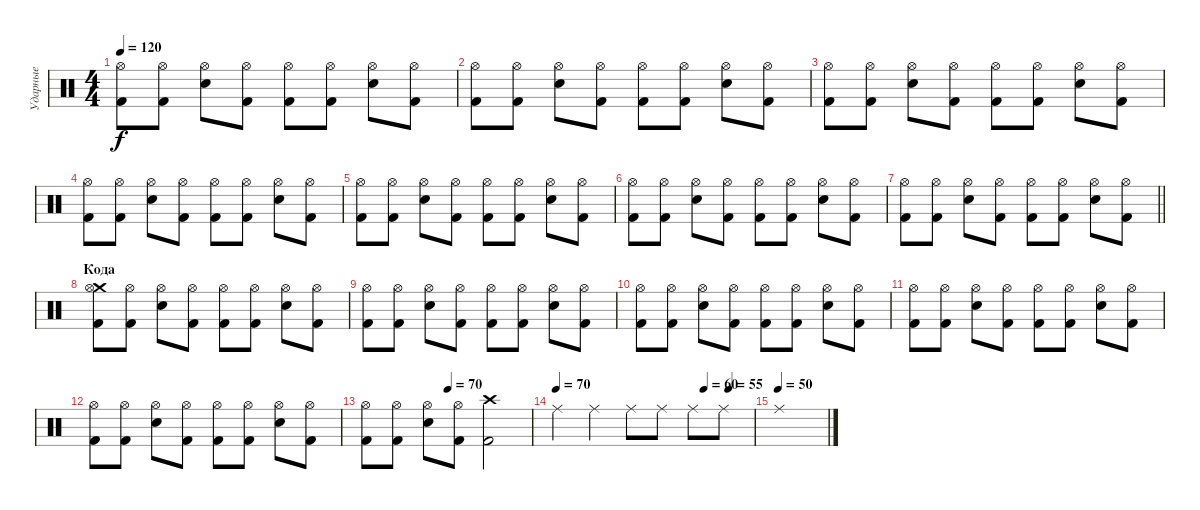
\track ("Ударные" "Ударные") {instrument percussion}
\staff {score}
\articulation defaults
\ts (4 4)
\tempo 120
\clef neutral
\ks c
("Kick (hit) 2" "Hi-Hat (open)").8{dy f} ("Kick (hit) 2" "Hi-Hat (open)").8 ("Snare (hit) 2" "Hi-Hat (open)").8 ("Kick (hit) 2" "Hi-Hat (open)").8 ("Kick (hit) 2" "Hi-Hat (open)").8 ("Kick (hit) 2" "Hi-Hat (open)").8 ("Snare (hit) 2" "Hi-Hat (open)").8 ("Kick (hit) 2" "Hi-Hat (open)").8 |
("Kick (hit) 2" "Hi-Hat (open)").8 ("Kick (hit) 2" "Hi-Hat (open)").8 ("Snare (hit) 2" "Hi-Hat (open)").8 ("Kick (hit) 2" "Hi-Hat (open)").8 ("Kick (hit) 2" "Hi-Hat (open)").8 ("Kick (hit) 2" "Hi-Hat (open)").8 ("Snare (hit) 2" "Hi-Hat (open)").8 ("Kick (hit) 2" "Hi-Hat (open)").8 |
("Kick (hit) 2" "Hi-Hat (open)").8 ("Kick (hit) 2" "Hi-Hat (open)").8 ("Snare (hit) 2" "Hi-Hat (open)").8 ("Kick (hit) 2" "Hi-Hat (open)").8 ("Kick (hit) 2" "Hi-Hat (open)").8 ("Kick (hit) 2" "Hi-Hat (open)").8 ("Snare (hit) 2" "Hi-Hat (open)").8 ("Kick (hit) 2" "Hi-Hat (open)").8 |
("Kick (hit) 2" "Hi-Hat (open)").8 ("Kick (hit) 2" "Hi-Hat (open)").8 ("Snare (hit) 2" "Hi-Hat (open)").8 ("Kick (hit) 2" "Hi-Hat (open)").8 ("Kick (hit) 2" "Hi-Hat (open)").8 ("Kick (hit) 2" "Hi-Hat (open)").8 ("Snare (hit) 2" "Hi-Hat (open)").8 ("Kick (hit) 2" "Hi-Hat (open)").8 |
("Kick (hit) 2" "Hi-Hat (open)").8 ("Kick (hit) 2" "Hi-Hat (open)").8 ("Snare (hit) 2" "Hi-Hat (open)").8 ("Kick (hit) 2" "Hi-Hat (open)").8 ("Kick (hit) 2" "Hi-Hat (open)").8 ("Kick (hit) 2" "Hi-Hat (open)").8 ("Snare (hit) 2" "Hi-Hat (open)").8 ("Kick (hit) 2" "Hi-Hat (open)").8 |
("Kick (hit) 2" "Hi-Hat (open)").8 ("Kick (hit) 2" "Hi-Hat (open)").8 ("Snare (hit) 2" "Hi-Hat (open)").8 ("Kick (hit) 2" "Hi-Hat (open)").8 ("Kick (hit) 2" "Hi-Hat (open)").8 ("Kick (hit) 2" "Hi-Hat (open)").8 ("Snare (hit) 2" "Hi-Hat (open)").8 ("Kick (hit) 2" "Hi-Hat (open)").8 |
\barLineRight lightlight
("Kick (hit) 2" "Hi-Hat (open)").8 ("Kick (hit) 2" "Hi-Hat (open)").8 ("Snare (hit) 2" "Hi-Hat (open)").8 ("Kick (hit) 2" "Hi-Hat (open)").8 ("Kick (hit) 2" "Hi-Hat (open)").8 ("Kick (hit) 2" "Hi-Hat (open)").8 ("Snare (hit) 2" "Hi-Hat (open)").8 ("Kick (hit) 2" "Hi-Hat (open)").8 |
\section ("" "Кода")
("Kick (hit) 2" "Crash medium (hit)" "Hi-Hat (open)").8 ("Kick (hit) 2" "Hi-Hat (open)").8 ("Snare (hit) 2" "Hi-Hat (open)").8 ("Kick (hit) 2" "Hi-Hat (open)").8 ("Kick (hit) 2" "Hi-Hat (open)").8 ("Kick (hit) 2" "Hi-Hat (open)").8 ("Snare (hit) 2" "Hi-Hat (open)").8 ("Kick (hit) 2" "Hi-Hat (open)").8 |
("Kick (hit) 2" "Hi-Hat (open)").8 ("Kick (hit) 2" "Hi-Hat (open)").8 ("Snare (hit) 2" "Hi-Hat (open)").8 ("Kick (hit) 2" "Hi-Hat (open)").8 ("Kick (hit) 2" "Hi-Hat (open)").8 ("Kick (hit) 2" "Hi-Hat (open)").8 ("Snare (hit) 2" "Hi-Hat (open)").8 ("Kick (hit) 2" "Hi-Hat (open)").8 |
("Kick (hit) 2" "Hi-Hat (open)").8 ("Kick (hit) 2" "Hi-Hat (open)").8 ("Snare (hit) 2" "Hi-Hat (open)").8 ("Kick (hit) 2" "Hi-Hat (open)").8 ("Kick (hit) 2" "Hi-Hat (open)").8 ("Kick (hit) 2" "Hi-Hat (open)").8 ("Snare (hit) 2" "Hi-Hat (open)").8 ("Kick (hit) 2" "Hi-Hat (open)").8 |
("Kick (hit) 2" "Hi-Hat (open)").8 ("Kick (hit) 2" "Hi-Hat (open)").8 ("Snare (hit) 2" "Hi-Hat (open)").8 ("Kick (hit) 2" "Hi-Hat (open)").8 ("Kick (hit) 2" "Hi-Hat (open)").8 ("Kick (hit) 2" "Hi-Hat (open)").8 ("Snare (hit) 2" "Hi-Hat (open)").8 ("Kick (hit) 2" "Hi-Hat (open)").8 |
("Kick (hit) 2" "Hi-Hat (open)").8 ("Kick (hit) 2" "Hi-Hat (open)").8 ("Snare (hit) 2" "Hi-Hat (open)").8 ("Kick (hit) 2" "Hi-Hat (open)").8 ("Kick (hit) 2" "Hi-Hat (open)").8 ("Kick (hit) 2" "Hi-Hat (open)").8 ("Snare (hit) 2" "Hi-Hat (open)").8 ("Kick (hit) 2" "Hi-Hat (open)").8 |
\tempo (70 0.5)
("Kick (hit) 2" "Hi-Hat (open)").8 ("Kick (hit) 2" "Hi-Hat (open)").8 ("Snare (hit) 2" "Hi-Hat (open)").8 ("Kick (hit) 2" "Hi-Hat (open)").8 ("Kick (hit) 2" "Crash high (hit)").2 |
\tempo 70
\tempo (60 0.75)
\tempo (55 0.875)
"Ride (middle)".4 "Ride (middle)".4 "Ride (middle)".8 "Ride (middle)".8 "Ride (middle)".8 "Ride (middle)".8 |
\tempo (50)
"Ride (middle)".1
